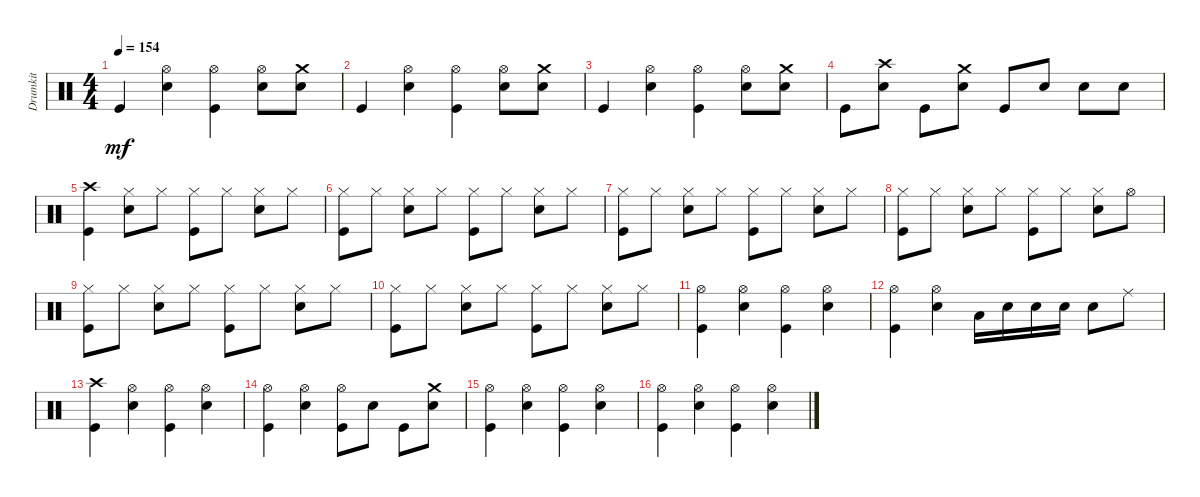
\track ("Drumkit" "Drumkit") {instrument percussion}
\staff {score}
\articulation defaults
\ts (4 4)
\tempo 154
\clef neutral
\ks c "Kick (hit)".4{dy mf}
("Snare (hit) 2" "Hi-Hat (open)").4 ("Kick (hit)" "Hi-Hat (open)").4 ("Snare (hit) 2" "Hi-Hat (open)").8 ("Snare (hit) 2" "Crash medium (hit)").8 |
"Kick (hit)".4 ("Snare (hit) 2" "Hi-Hat (open)").4 ("Kick (hit)" "Hi-Hat (open)").4 ("Snare (hit) 2" "Hi-Hat (open)").8 ("Snare (hit) 2" "Crash medium (hit)").8 |
"Kick (hit)".4 ("Snare (hit) 2" "Hi-Hat (open)").4 ("Kick (hit)" "Hi-Hat (open)").4 ("Snare (hit) 2" "Hi-Hat (open)").8 ("Snare (hit) 2" "Crash medium (hit)").8 |
"Kick (hit)".8 ("Snare (hit) 2" "Crash high (hit)").8 "Kick (hit)".8 ("Snare (hit) 2" "Crash medium (hit)").8 "Kick (hit)".8 "Snare (hit) 2".8 "Snare (hit) 2".8 "Snare (hit) 2".8 |
("Kick (hit)" "Crash high (hit)").4 ("Snare (hit) 2" "Hi-Hat (closed)").8 "Hi-Hat (closed)".8 ("Kick (hit)" "Hi-Hat (closed)").8 "Hi-Hat (closed)".8 ("Snare (hit) 2" "Hi-Hat (closed)").8 "Hi-Hat (closed)".8 |
("Kick (hit)" "Hi-Hat (closed)").8 "Hi-Hat (closed)".8 ("Snare (hit) 2" "Hi-Hat (closed)").8 "Hi-Hat (closed)".8 ("Kick (hit)" "Hi-Hat (closed)").8 "Hi-Hat (closed)".8 ("Snare (hit) 2" "Hi-Hat (closed)").8 "Hi-Hat (closed)".8 |
("Kick (hit)" "Hi-Hat (closed)").8 "Hi-Hat (closed)".8 ("Snare (hit) 2" "Hi-Hat (closed)").8 "Hi-Hat (closed)".8 ("Kick (hit)" "Hi-Hat (closed)").8 "Hi-Hat (closed)".8 ("Snare (hit) 2" "Hi-Hat (closed)").8 "Hi-Hat (closed)".8 |
("Kick (hit)" "Hi-Hat (closed)").8 "Hi-Hat (closed)".8 ("Snare (hit) 2" "Hi-Hat (closed)").8 "Hi-Hat (closed)".8 ("Kick (hit)" "Hi-Hat (closed)").8 "Hi-Hat (closed)".8 ("Snare (hit) 2" "Hi-Hat (closed)").8 "Hi-Hat (open)".8 |
("Kick (hit)" "Hi-Hat (closed)").8 "Hi-Hat (closed)".8 ("Snare (hit) 2" "Hi-Hat (closed)").8 "Hi-Hat (closed)".8 ("Kick (hit)" "Hi-Hat (closed)").8 "Hi-Hat (closed)".8 ("Snare (hit) 2" "Hi-Hat (closed)").8 "Hi-Hat (closed)".8 |
("Kick (hit)" "Hi-Hat (closed)").8 "Hi-Hat (closed)".8 ("Snare (hit) 2" "Hi-Hat (closed)").8 "Hi-Hat (closed)".8 ("Kick (hit)" "Hi-Hat (closed)").8 "Hi-Hat (closed)".8 ("Snare (hit) 2" "Hi-Hat (closed)").8 "Hi-Hat (closed)".8 |
("Kick (hit)" "Hi-Hat (open)").4 ("Snare (hit) 2" "Hi-Hat (open)").4 ("Kick (hit)" "Hi-Hat (open)").4 ("Snare (hit) 2" "Hi-Hat (open)").4 |
("Kick (hit)" "Hi-Hat (open)").4 ("Snare (hit) 2" "Hi-Hat (open)").4 "Low Tom (hit)".16 "Snare (hit) 2".16 "Snare (hit) 2".16 "Snare (hit) 2".16 "Snare (hit) 2".8 "Ride (middle)".8 |
("Kick (hit)" "Crash high (hit)").4 ("Snare (hit) 2" "Hi-Hat (open)").4 ("Kick (hit)" "Hi-Hat (open)").4 ("Snare (hit) 2" "Hi-Hat (open)").4 |
("Kick (hit)" "Hi-Hat (open)").4 ("Snare (hit) 2" "Hi-Hat (open)").4 ("Kick (hit)" "Hi-Hat (open)").8 "Snare (hit) 2".8 "Kick (hit)".8 ("Snare (hit) 2" "Crash medium (hit)").8 |
("Kick (hit)" "Hi-Hat (open)").4 ("Snare (hit) 2" "Hi-Hat (open)").4 ("Kick (hit)" "Hi-Hat (open)").4 ("Snare (hit) 2" "Hi-Hat (open)").4 |
("Kick (hit)" "Hi-Hat (open)").4 ("Snare (hit) 2" "Hi-Hat (open)").4 ("Kick (hit)" "Hi-Hat (open)").4 ("Snare (hit) 2" "Hi-Hat (open)").4
